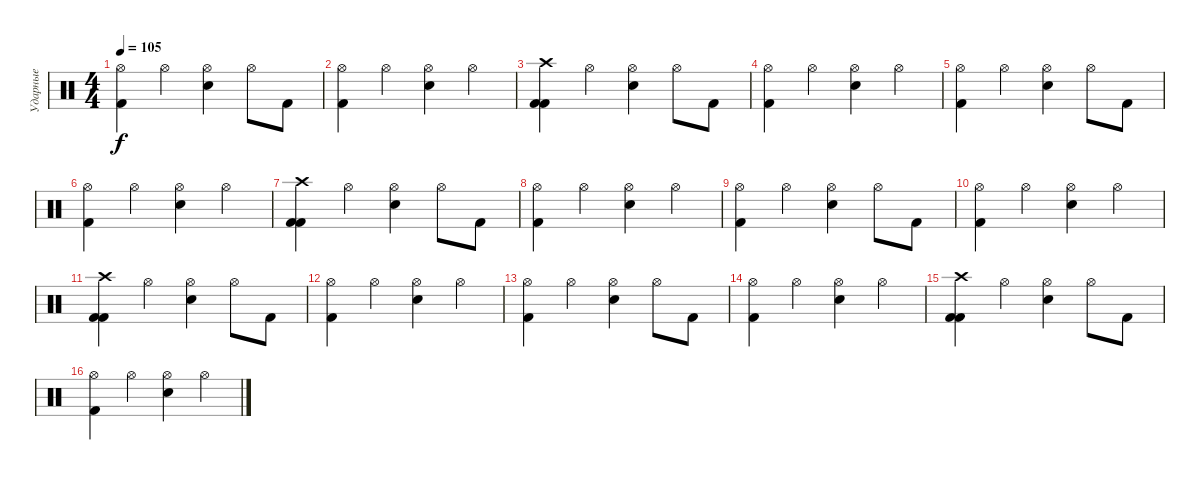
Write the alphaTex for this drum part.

\track ("Ударные" "Ударные") {instrument percussion}
\staff {score}
\articulation defaults
\ts (4 4)
\tempo 105
\clef neutral
\ks c
("Hi-Hat (open)" "Kick (hit) 2").4{dy f} "Hi-Hat (open)".4 ("Electric Snare (hit)" "Hi-Hat (open)").4 "Hi-Hat (open)".8 "Kick (hit) 2".8 |
("Kick (hit) 2" "Hi-Hat (open)").4 "Hi-Hat (open)".4 ("Hi-Hat (open)" "Electric Snare (hit)").4 "Hi-Hat (open)".4 |
("Crash high (hit)" "Kick (hit) 2" "Kick (hit) 2").4 "Hi-Hat (open)".4 ("Electric Snare (hit)" "Hi-Hat (open)").4 "Hi-Hat (open)".8 "Kick (hit) 2".8 |
("Kick (hit) 2" "Hi-Hat (open)").4 "Hi-Hat (open)".4 ("Hi-Hat (open)" "Electric Snare (hit)").4 "Hi-Hat (open)".4 |
("Hi-Hat (open)" "Kick (hit) 2").4 "Hi-Hat (open)".4 ("Electric Snare (hit)" "Hi-Hat (open)").4 "Hi-Hat (open)".8 "Kick (hit) 2".8 |
("Kick (hit) 2" "Hi-Hat (open)").4 "Hi-Hat (open)".4 ("Hi-Hat (open)" "Electric Snare (hit)").4 "Hi-Hat (open)".4 |
("Crash high (hit)" "Kick (hit) 2" "Kick (hit) 2").4 "Hi-Hat (open)".4 ("Electric Snare (hit)" "Hi-Hat (open)").4 "Hi-Hat (open)".8 "Kick (hit) 2".8 |
("Kick (hit) 2" "Hi-Hat (open)").4 "Hi-Hat (open)".4 ("Hi-Hat (open)" "Electric Snare (hit)").4 "Hi-Hat (open)".4 |
("Hi-Hat (open)" "Kick (hit) 2").4 "Hi-Hat (open)".4 ("Electric Snare (hit)" "Hi-Hat (open)").4 "Hi-Hat (open)".8 "Kick (hit) 2".8 |
("Kick (hit) 2" "Hi-Hat (open)").4 "Hi-Hat (open)".4 ("Hi-Hat (open)" "Electric Snare (hit)").4 "Hi-Hat (open)".4 |
("Crash high (hit)" "Kick (hit) 2" "Kick (hit) 2").4 "Hi-Hat (open)".4 ("Electric Snare (hit)" "Hi-Hat (open)").4 "Hi-Hat (open)".8 "Kick (hit) 2".8 |
("Kick (hit) 2" "Hi-Hat (open)").4 "Hi-Hat (open)".4 ("Hi-Hat (open)" "Electric Snare (hit)").4 "Hi-Hat (open)".4 |
("Hi-Hat (open)" "Kick (hit) 2").4 "Hi-Hat (open)".4 ("Electric Snare (hit)" "Hi-Hat (open)").4 "Hi-Hat (open)".8 "Kick (hit) 2".8 |
("Kick (hit) 2" "Hi-Hat (open)").4 "Hi-Hat (open)".4 ("Hi-Hat (open)" "Electric Snare (hit)").4 "Hi-Hat (open)".4 |
("Crash high (hit)" "Kick (hit) 2" "Kick (hit) 2").4 "Hi-Hat (open)".4 ("Electric Snare (hit)" "Hi-Hat (open)").4 "Hi-Hat (open)".8 "Kick (hit) 2".8 |
("Kick (hit) 2" "Hi-Hat (open)").4 "Hi-Hat (open)".4 ("Hi-Hat (open)" "Electric Snare (hit)").4 "Hi-Hat (open)".4
